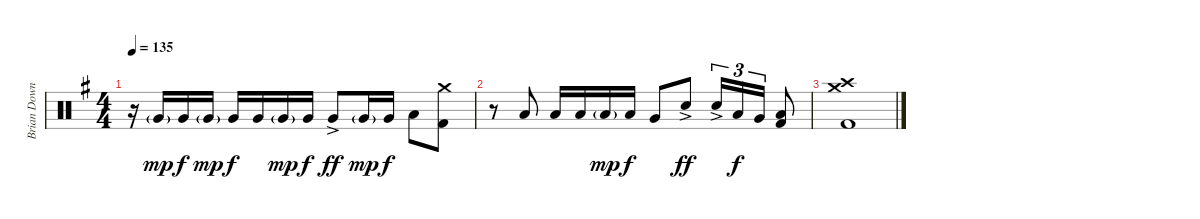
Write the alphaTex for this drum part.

\track ("Brian Downey" "Brian Down") {instrument percussion}
\staff {score}
\articulation defaults
\ts (4 4)
\tempo 135
\clef neutral
\ks eminor
r.16{dy f} "Very Low Tom (hit)"{g}.16{dy mp} "Very Low Tom (hit)".16{dy f} "Very Low Tom (hit)"{g}.16{dy mp} "Very Low Tom (hit)".16{dy f} "Very Low Tom (hit)".16 "Very Low Tom (hit)"{g}.16{dy mp} "Very Low Tom (hit)".16{dy f} "Very Low Tom (hit)"{ac}.8{dy ff} "Very Low Tom (hit)"{g}.16{dy mp} "Very Low Tom (hit)".16{dy f} "Low Floor Tom (hit)".8 ("Crash medium (hit)" "Kick (hit) 2").8 |
r.8 "Low Tom (hit)".8 "Low Tom (hit)".16 "Low Tom (hit)".16 "Low Tom (hit)"{g}.16{dy mp} "Low Tom (hit)".16{dy f} "Very Low Tom (hit)".8 "Electric Snare (hit)"{ac}.8{dy ff} "Electric Snare (hit)"{ac}.16{tu (3 2)} "Low Tom (hit)".16{tu (3 2) dy f} "Very Low Tom (hit)".16{tu (3 2)} ("Low Floor Tom (hit)" "Kick (hit) 2").8 |
("Crash high (hit)" "Crash medium (hit)" "Kick (hit) 2").1
